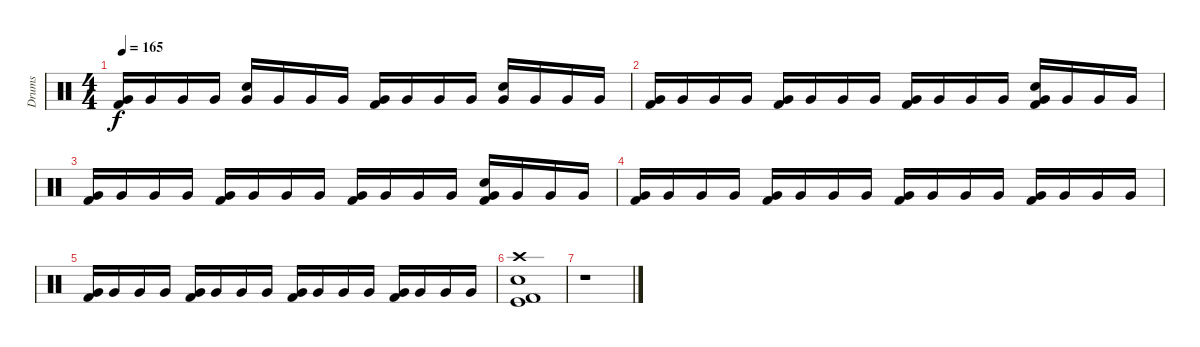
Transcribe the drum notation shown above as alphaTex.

\track ("Drums" "Drums") {instrument percussion}
\staff {score}
\articulation defaults
\ts (4 4)
\tempo 165
\clef neutral
\ks c
("Very Low Tom (hit)" "Kick (hit) 2").16{dy f} "Very Low Tom (hit)".16 "Very Low Tom (hit)".16 "Very Low Tom (hit)".16 ("Very Low Tom (hit)" "Snare (hit) 2").16 "Very Low Tom (hit)".16 "Very Low Tom (hit)".16 "Very Low Tom (hit)".16 ("Very Low Tom (hit)" "Kick (hit) 2").16 "Very Low Tom (hit)".16 "Very Low Tom (hit)".16 "Very Low Tom (hit)".16 ("Very Low Tom (hit)" "Snare (hit) 2").16 "Very Low Tom (hit)".16 "Very Low Tom (hit)".16 "Very Low Tom (hit)".16 |
("Very Low Tom (hit)" "Kick (hit) 2").16{volume 4} "Very Low Tom (hit)".16 "Very Low Tom (hit)".16 "Very Low Tom (hit)".16 ("Very Low Tom (hit)" "Kick (hit) 2").16 "Very Low Tom (hit)".16 "Very Low Tom (hit)".16 "Very Low Tom (hit)".16 ("Very Low Tom (hit)" "Kick (hit) 2").16 "Very Low Tom (hit)".16 "Very Low Tom (hit)".16 "Very Low Tom (hit)".16 ("Very Low Tom (hit)" "Snare (hit) 2" "Kick (hit) 2").16 "Very Low Tom (hit)".16 "Very Low Tom (hit)".16 "Very Low Tom (hit)".16 |
("Very Low Tom (hit)" "Kick (hit) 2").16 "Very Low Tom (hit)".16 "Very Low Tom (hit)".16 "Very Low Tom (hit)".16 ("Very Low Tom (hit)" "Kick (hit) 2").16 "Very Low Tom (hit)".16 "Very Low Tom (hit)".16 "Very Low Tom (hit)".16 ("Very Low Tom (hit)" "Kick (hit) 2").16 "Very Low Tom (hit)".16 "Very Low Tom (hit)".16 "Very Low Tom (hit)".16 ("Very Low Tom (hit)" "Snare (hit) 2" "Kick (hit) 2").16 "Very Low Tom (hit)".16 "Very Low Tom (hit)".16 "Very Low Tom (hit)".16 |
("Very Low Tom (hit)" "Kick (hit) 2").16{volume 1} "Very Low Tom (hit)".16 "Very Low Tom (hit)".16 "Very Low Tom (hit)".16 ("Very Low Tom (hit)" "Kick (hit) 2").16 "Very Low Tom (hit)".16 "Very Low Tom (hit)".16 "Very Low Tom (hit)".16 ("Very Low Tom (hit)" "Kick (hit) 2").16 "Very Low Tom (hit)".16 "Very Low Tom (hit)".16 "Very Low Tom (hit)".16 ("Very Low Tom (hit)" "Kick (hit) 2").16 "Very Low Tom (hit)".16 "Very Low Tom (hit)".16 "Very Low Tom (hit)".16 |
("Very Low Tom (hit)" "Kick (hit) 2").16 "Very Low Tom (hit)".16 "Very Low Tom (hit)".16 "Very Low Tom (hit)".16 ("Very Low Tom (hit)" "Kick (hit) 2").16 "Very Low Tom (hit)".16 "Very Low Tom (hit)".16 "Very Low Tom (hit)".16 ("Very Low Tom (hit)" "Kick (hit) 2").16 "Very Low Tom (hit)".16 "Very Low Tom (hit)".16 "Very Low Tom (hit)".16 ("Very Low Tom (hit)" "Kick (hit) 2").16 "Very Low Tom (hit)".16 "Very Low Tom (hit)".16 "Very Low Tom (hit)".16 |
("Crash high (hit)" "Snare (hit) 2" "Kick (hit)" "Kick (hit) 2").1{volume 0} |
r.1
